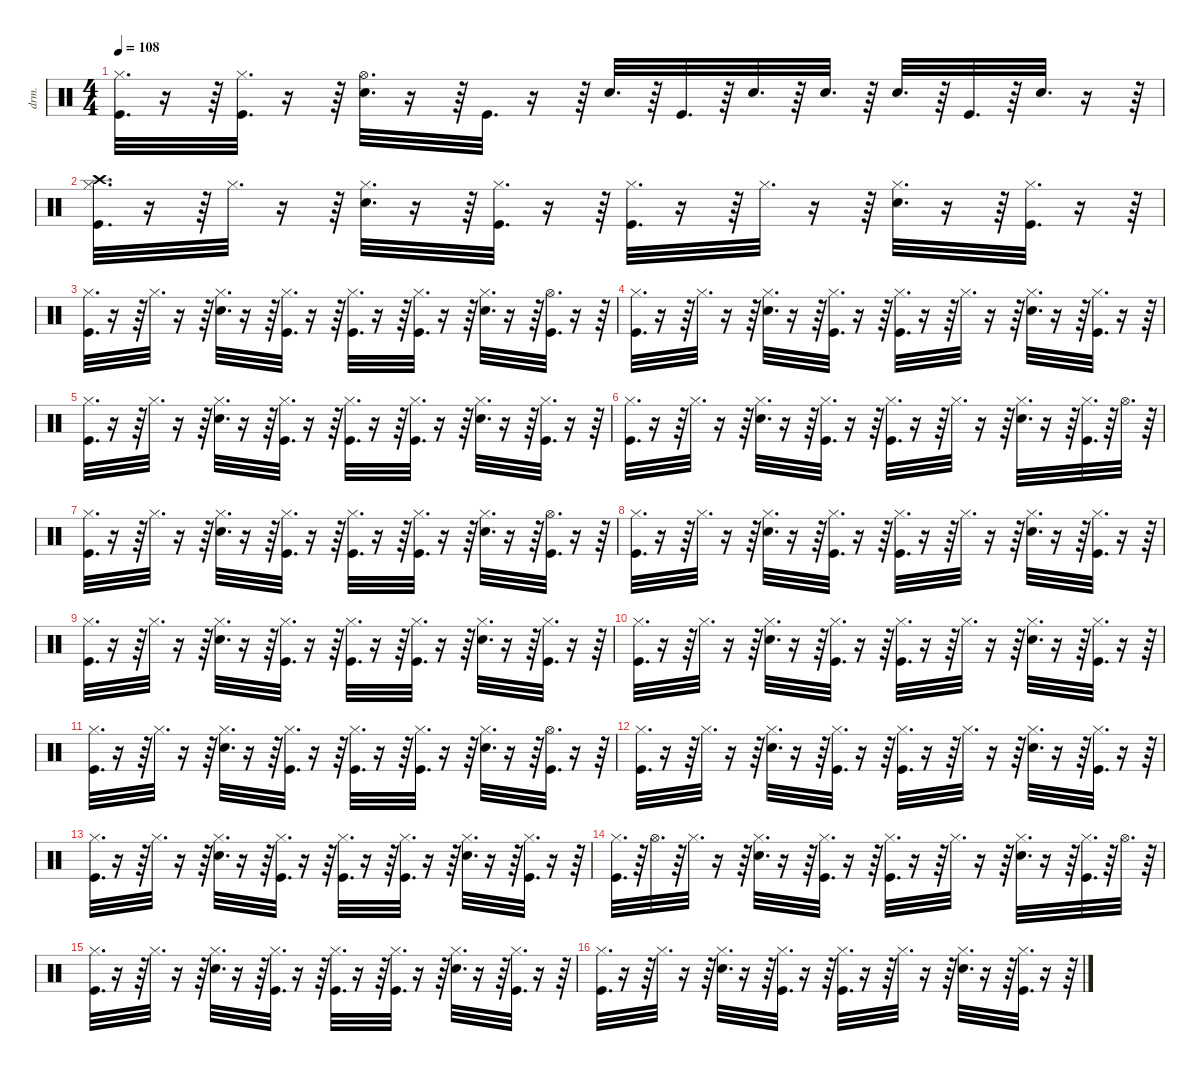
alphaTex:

\defaultSystemsLayout 4
\hideDynamics
\bracketExtendMode nobrackets
\otherSystemsTrackNameOrientation horizontal
\track ("Percussions" "drm.") {instrument percussion}
\staff {score}
\articulation defaults
\ts (4 4)
\tempo 108
\clef neutral
\ks c
("Hi-Hat (closed)" "Kick (hit)").32{d dy f} r.16 r.64 ("Hi-Hat (closed)" "Kick (hit)").32{d} r.16 r.64 ("Hi-Hat (open)" "Snare (hit) 2").32{d} r.16 r.64 "Kick (hit)".32{d} r.16 r.64 "Snare (hit) 2".32{d} r.64 "Kick (hit)".32{d} r.64 "Snare (hit) 2".32{d} r.64 "Snare (hit) 2".32{d} r.64 "Snare (hit) 2".32{d} r.64 "Kick (hit)".32{d} r.64 "Snare (hit) 2".32{d} r.16 r.64 |
("Crash high (hit)" "Hi-Hat (closed)" "Kick (hit)").32{d} r.16 r.64 "Hi-Hat (closed)".32{d} r.16 r.64 ("Hi-Hat (closed)" "Snare (hit) 2").32{d} r.16 r.64 ("Hi-Hat (closed)" "Kick (hit)").32{d} r.16 r.64 ("Hi-Hat (closed)" "Kick (hit)").32{d} r.16 r.64 "Hi-Hat (closed)".32{d} r.16 r.64 ("Hi-Hat (closed)" "Snare (hit) 2").32{d} r.16 r.64 ("Hi-Hat (closed)" "Kick (hit)").32{d} r.16 r.64 |
("Hi-Hat (closed)" "Kick (hit)").32{d} r.16 r.64 "Hi-Hat (closed)".32{d} r.16 r.64 ("Hi-Hat (closed)" "Snare (hit) 2").32{d} r.16 r.64 ("Hi-Hat (closed)" "Kick (hit)").32{d} r.16 r.64 ("Hi-Hat (closed)" "Kick (hit)").32{d} r.16 r.64 ("Hi-Hat (closed)" "Kick (hit)").32{d} r.16 r.64 ("Hi-Hat (closed)" "Snare (hit) 2").32{d} r.16 r.64 ("Hi-Hat (open)" "Kick (hit)").32{d} r.16 r.64 |
("Hi-Hat (closed)" "Kick (hit)").32{d} r.16 r.64 "Hi-Hat (closed)".32{d} r.16 r.64 ("Hi-Hat (closed)" "Snare (hit) 2").32{d} r.16 r.64 ("Hi-Hat (closed)" "Kick (hit)").32{d} r.16 r.64 ("Hi-Hat (closed)" "Kick (hit)").32{d} r.16 r.64 "Hi-Hat (closed)".32{d} r.16 r.64 ("Hi-Hat (closed)" "Snare (hit) 2").32{d} r.16 r.64 ("Hi-Hat (closed)" "Kick (hit)").32{d} r.16 r.64 |
("Hi-Hat (closed)" "Kick (hit)").32{d} r.16 r.64 "Hi-Hat (closed)".32{d} r.16 r.64 ("Hi-Hat (closed)" "Snare (hit) 2").32{d} r.16 r.64 ("Hi-Hat (closed)" "Kick (hit)").32{d} r.16 r.64 ("Hi-Hat (closed)" "Kick (hit)").32{d} r.16 r.64 ("Hi-Hat (closed)" "Kick (hit)").32{d} r.16 r.64 ("Hi-Hat (closed)" "Snare (hit) 2").32{d} r.16 r.64 ("Hi-Hat (closed)" "Kick (hit)").32{d} r.16 r.64 |
("Hi-Hat (closed)" "Kick (hit)").32{d} r.16 r.64 "Hi-Hat (closed)".32{d} r.16 r.64 ("Hi-Hat (closed)" "Snare (hit) 2").32{d} r.16 r.64 ("Hi-Hat (closed)" "Kick (hit)").32{d} r.16 r.64 ("Hi-Hat (closed)" "Kick (hit)").32{d} r.16 r.64 "Hi-Hat (closed)".32{d} r.16 r.64 ("Hi-Hat (closed)" "Snare (hit) 2").32{d} r.16 r.64 ("Hi-Hat (closed)" "Kick (hit)").32{d} r.64 "Hi-Hat (open)".32{d} r.64 |
("Hi-Hat (closed)" "Kick (hit)").32{d} r.16 r.64 "Hi-Hat (closed)".32{d} r.16 r.64 ("Hi-Hat (closed)" "Snare (hit) 2").32{d} r.16 r.64 ("Hi-Hat (closed)" "Kick (hit)").32{d} r.16 r.64 ("Hi-Hat (closed)" "Kick (hit)").32{d} r.16 r.64 ("Hi-Hat (closed)" "Kick (hit)").32{d} r.16 r.64 ("Hi-Hat (closed)" "Snare (hit) 2").32{d} r.16 r.64 ("Hi-Hat (open)" "Kick (hit)").32{d} r.16 r.64 |
("Hi-Hat (closed)" "Kick (hit)").32{d} r.16 r.64 "Hi-Hat (closed)".32{d} r.16 r.64 ("Hi-Hat (closed)" "Snare (hit) 2").32{d} r.16 r.64 ("Hi-Hat (closed)" "Kick (hit)").32{d} r.16 r.64 ("Hi-Hat (closed)" "Kick (hit)").32{d} r.16 r.64 "Hi-Hat (closed)".32{d} r.16 r.64 ("Hi-Hat (closed)" "Snare (hit) 2").32{d} r.16 r.64 ("Hi-Hat (closed)" "Kick (hit)").32{d} r.16 r.64 |
("Hi-Hat (closed)" "Kick (hit)").32{d} r.16 r.64 "Hi-Hat (closed)".32{d} r.16 r.64 ("Hi-Hat (closed)" "Snare (hit) 2").32{d} r.16 r.64 ("Hi-Hat (closed)" "Kick (hit)").32{d} r.16 r.64 ("Hi-Hat (closed)" "Kick (hit)").32{d} r.16 r.64 ("Hi-Hat (closed)" "Kick (hit)").32{d} r.16 r.64 ("Hi-Hat (closed)" "Snare (hit) 2").32{d} r.16 r.64 ("Hi-Hat (closed)" "Kick (hit)").32{d} r.16 r.64 |
("Hi-Hat (closed)" "Kick (hit)").32{d} r.16 r.64 "Hi-Hat (closed)".32{d} r.16 r.64 ("Hi-Hat (closed)" "Snare (hit) 2").32{d} r.16 r.64 ("Hi-Hat (closed)" "Kick (hit)").32{d} r.16 r.64 ("Hi-Hat (closed)" "Kick (hit)").32{d} r.16 r.64 "Hi-Hat (closed)".32{d} r.16 r.64 ("Hi-Hat (closed)" "Snare (hit) 2").32{d} r.16 r.64 ("Hi-Hat (closed)" "Kick (hit)").32{d} r.16 r.64 |
("Hi-Hat (closed)" "Kick (hit)").32{d} r.16 r.64 "Hi-Hat (closed)".32{d} r.16 r.64 ("Hi-Hat (closed)" "Snare (hit) 2").32{d} r.16 r.64 ("Hi-Hat (closed)" "Kick (hit)").32{d} r.16 r.64 ("Hi-Hat (closed)" "Kick (hit)").32{d} r.16 r.64 ("Hi-Hat (closed)" "Kick (hit)").32{d} r.16 r.64 ("Hi-Hat (closed)" "Snare (hit) 2").32{d} r.16 r.64 ("Hi-Hat (open)" "Kick (hit)").32{d} r.16 r.64 |
("Hi-Hat (closed)" "Kick (hit)").32{d} r.16 r.64 "Hi-Hat (closed)".32{d} r.16 r.64 ("Hi-Hat (closed)" "Snare (hit) 2").32{d} r.16 r.64 ("Hi-Hat (closed)" "Kick (hit)").32{d} r.16 r.64 ("Hi-Hat (closed)" "Kick (hit)").32{d} r.16 r.64 "Hi-Hat (closed)".32{d} r.16 r.64 ("Hi-Hat (closed)" "Snare (hit) 2").32{d} r.16 r.64 ("Hi-Hat (closed)" "Kick (hit)").32{d} r.16 r.64 |
("Hi-Hat (closed)" "Kick (hit)").32{d} r.16 r.64 "Hi-Hat (closed)".32{d} r.16 r.64 ("Hi-Hat (closed)" "Snare (hit) 2").32{d} r.16 r.64 ("Hi-Hat (closed)" "Kick (hit)").32{d} r.16 r.64 ("Hi-Hat (closed)" "Kick (hit)").32{d} r.16 r.64 ("Hi-Hat (closed)" "Kick (hit)").32{d} r.16 r.64 ("Hi-Hat (closed)" "Snare (hit) 2").32{d} r.16 r.64 ("Hi-Hat (closed)" "Kick (hit)").32{d} r.16 r.64 |
("Hi-Hat (closed)" "Kick (hit)").32{d} r.64 "Hi-Hat (open)".32{d} r.64 "Hi-Hat (closed)".32{d} r.16 r.64 ("Hi-Hat (closed)" "Snare (hit) 2").32{d} r.16 r.64 ("Hi-Hat (closed)" "Kick (hit)").32{d} r.16 r.64 ("Hi-Hat (closed)" "Kick (hit)").32{d} r.16 r.64 "Hi-Hat (closed)".32{d} r.16 r.64 ("Hi-Hat (closed)" "Snare (hit) 2").32{d} r.16 r.64 ("Hi-Hat (closed)" "Kick (hit)").32{d} r.64 "Hi-Hat (open)".32{d} r.64 |
("Hi-Hat (closed)" "Kick (hit)").32{d} r.16 r.64 "Hi-Hat (closed)".32{d} r.16 r.64 ("Hi-Hat (closed)" "Snare (hit) 2").32{d} r.16 r.64 ("Hi-Hat (closed)" "Kick (hit)").32{d} r.16 r.64 ("Hi-Hat (closed)" "Kick (hit)").32{d} r.16 r.64 ("Hi-Hat (closed)" "Kick (hit)").32{d} r.16 r.64 ("Hi-Hat (closed)" "Snare (hit) 2").32{d} r.16 r.64 ("Hi-Hat (closed)" "Kick (hit)").32{d} r.16 r.64 |
("Hi-Hat (closed)" "Kick (hit)").32{d} r.16 r.64 "Hi-Hat (closed)".32{d} r.16 r.64 ("Hi-Hat (closed)" "Snare (hit) 2").32{d} r.16 r.64 ("Hi-Hat (closed)" "Kick (hit)").32{d} r.16 r.64 ("Hi-Hat (closed)" "Kick (hit)").32{d} r.16 r.64 "Hi-Hat (closed)".32{d} r.16 r.64 ("Hi-Hat (closed)" "Snare (hit) 2").32{d} r.16 r.64 ("Hi-Hat (closed)" "Kick (hit)").32{d} r.16 r.64
